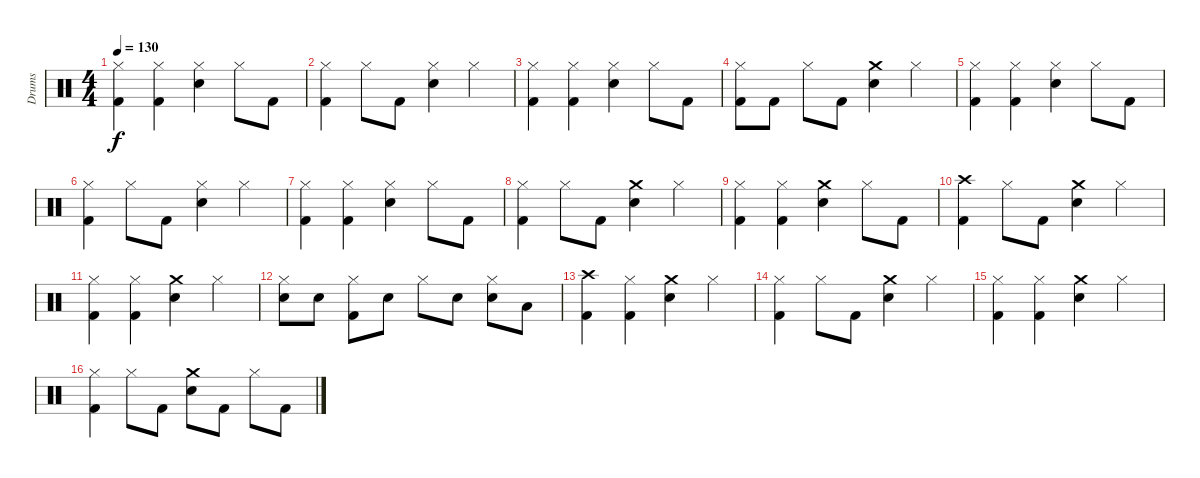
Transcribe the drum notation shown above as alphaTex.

\track ("Drums" "Drums") {instrument percussion}
\staff {score}
\articulation defaults
\ts (4 4)
\tempo 130
\clef neutral
\ks c
("Hi-Hat (closed)" "Kick (hit) 2").4{dy f} ("Hi-Hat (closed)" "Kick (hit) 2").4 ("Hi-Hat (closed)" "Snare (hit) 2").4 "Hi-Hat (closed)".8 "Kick (hit) 2".8 |
("Hi-Hat (closed)" "Kick (hit) 2").4 "Hi-Hat (closed)".8 "Kick (hit) 2".8 ("Hi-Hat (closed)" "Snare (hit) 2").4 "Hi-Hat (closed)".4 |
("Hi-Hat (closed)" "Kick (hit) 2").4 ("Hi-Hat (closed)" "Kick (hit) 2").4 ("Hi-Hat (closed)" "Snare (hit) 2").4 "Hi-Hat (closed)".8 "Kick (hit) 2".8 |
("Hi-Hat (closed)" "Kick (hit) 2").8 "Kick (hit) 2".8 "Hi-Hat (closed)".8 "Kick (hit) 2".8 ("Crash medium (hit)" "Snare (hit) 2").4 "Hi-Hat (closed)".4 |
("Hi-Hat (closed)" "Kick (hit) 2").4 ("Hi-Hat (closed)" "Kick (hit) 2").4 ("Hi-Hat (closed)" "Snare (hit) 2").4 "Hi-Hat (closed)".8 "Kick (hit) 2".8 |
("Hi-Hat (closed)" "Kick (hit) 2").4 "Hi-Hat (closed)".8 "Kick (hit) 2".8 ("Hi-Hat (closed)" "Snare (hit) 2").4 "Hi-Hat (closed)".4 |
("Hi-Hat (closed)" "Kick (hit) 2").4 ("Hi-Hat (closed)" "Kick (hit) 2").4 ("Hi-Hat (closed)" "Snare (hit) 2").4 "Hi-Hat (closed)".8 "Kick (hit) 2".8 |
("Hi-Hat (closed)" "Kick (hit) 2").4 "Hi-Hat (closed)".8 "Kick (hit) 2".8 ("Crash medium (hit)" "Snare (hit) 2").4 "Hi-Hat (closed)".4 |
("Hi-Hat (closed)" "Kick (hit) 2").4 ("Hi-Hat (closed)" "Kick (hit) 2").4 ("Crash medium (hit)" "Snare (hit) 2").4 "Hi-Hat (closed)".8 "Kick (hit) 2".8 |
("Crash high (hit)" "Kick (hit) 2").4 "Hi-Hat (closed)".8 "Kick (hit) 2".8 ("Crash medium (hit)" "Snare (hit) 2").4 "Hi-Hat (closed)".4 |
("Hi-Hat (closed)" "Kick (hit) 2").4 ("Hi-Hat (closed)" "Kick (hit) 2").4 ("Crash medium (hit)" "Snare (hit) 2").4 "Hi-Hat (closed)".4 |
("Hi-Hat (closed)" "Snare (hit) 2").8 "Snare (hit) 2".8 ("Hi-Hat (closed)" "Kick (hit) 2").8 "Snare (hit) 2".8 "Hi-Hat (closed)".8 "Snare (hit) 2".8 ("Hi-Hat (closed)" "Snare (hit) 2").8 "Low Tom (hit)".8 |
("Crash high (hit)" "Kick (hit) 2").4 ("Hi-Hat (closed)" "Kick (hit) 2").4 ("Crash medium (hit)" "Snare (hit) 2").4 "Hi-Hat (closed)".4 |
("Hi-Hat (closed)" "Kick (hit) 2").4 "Hi-Hat (closed)".8 "Kick (hit) 2".8 ("Crash medium (hit)" "Snare (hit) 2").4 "Hi-Hat (closed)".4 |
("Hi-Hat (closed)" "Kick (hit) 2").4 ("Hi-Hat (closed)" "Kick (hit) 2").4 ("Crash medium (hit)" "Snare (hit) 2").4 "Hi-Hat (closed)".4 |
("Hi-Hat (closed)" "Kick (hit) 2").4 "Hi-Hat (closed)".8 "Kick (hit) 2".8 ("Crash medium (hit)" "Snare (hit) 2").8 "Kick (hit) 2".8 "Hi-Hat (closed)".8 "Kick (hit) 2".8
